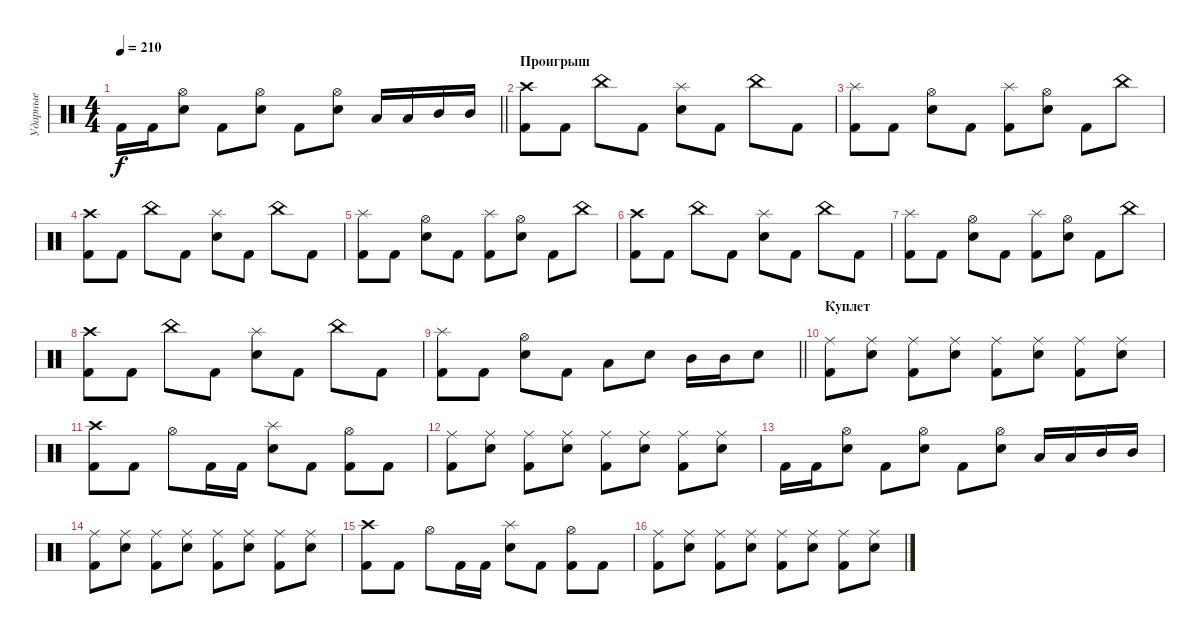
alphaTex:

\track ("Ударные" "Ударные") {instrument percussion}
\staff {score}
\articulation defaults
\ts (4 4)
\tempo 210
\clef neutral
\barLineRight lightlight
\ks c "Kick (hit) 2".16{dy f} "Kick (hit) 2".16
("Electric Snare (hit)" "Hi-Hat (open)").8 "Kick (hit) 2".8 ("Electric Snare (hit)" "Hi-Hat (open)").8 "Kick (hit) 2".8 ("Electric Snare (hit)" "Hi-Hat (open)").8 "Low Tom (hit)".16 "Low Tom (hit)".16 "Mid Tom (hit)".16 "Mid Tom (hit)".16 |
\section ("" "Проигрыш")
("Kick (hit) 2" "Crash high (hit)").8 "Kick (hit) 2".8 "China (hit)".8 "Kick (hit) 2".8 ("Electric Snare (hit)" "Splash (hit)").8 "Kick (hit) 2".8 "China (hit)".8 "Kick (hit) 2".8 |
("Kick (hit) 2" "Splash (hit)").8 "Kick (hit) 2".8 ("Electric Snare (hit)" "Hi-Hat (open)").8 "Kick (hit) 2".8 ("Kick (hit) 2" "Splash (hit)").8 ("Electric Snare (hit)" "Hi-Hat (open)").8 "Kick (hit) 2".8 "China (hit)".8 |
("Kick (hit) 2" "Crash high (hit)").8 "Kick (hit) 2".8 "China (hit)".8 "Kick (hit) 2".8 ("Electric Snare (hit)" "Splash (hit)").8 "Kick (hit) 2".8 "China (hit)".8 "Kick (hit) 2".8 |
("Kick (hit) 2" "Splash (hit)").8 "Kick (hit) 2".8 ("Electric Snare (hit)" "Hi-Hat (open)").8 "Kick (hit) 2".8 ("Kick (hit) 2" "Splash (hit)").8 ("Electric Snare (hit)" "Hi-Hat (open)").8 "Kick (hit) 2".8 "China (hit)".8 |
("Kick (hit) 2" "Crash high (hit)").8 "Kick (hit) 2".8 "China (hit)".8 "Kick (hit) 2".8 ("Electric Snare (hit)" "Splash (hit)").8 "Kick (hit) 2".8 "China (hit)".8 "Kick (hit) 2".8 |
("Kick (hit) 2" "Splash (hit)").8 "Kick (hit) 2".8 ("Electric Snare (hit)" "Hi-Hat (open)").8 "Kick (hit) 2".8 ("Kick (hit) 2" "Splash (hit)").8 ("Electric Snare (hit)" "Hi-Hat (open)").8 "Kick (hit) 2".8 "China (hit)".8 |
("Kick (hit) 2" "Crash high (hit)").8 "Kick (hit) 2".8 "China (hit)".8 "Kick (hit) 2".8 ("Electric Snare (hit)" "Splash (hit)").8 "Kick (hit) 2".8 "China (hit)".8 "Kick (hit) 2".8 |
\barLineRight lightlight
("Kick (hit) 2" "Splash (hit)").8 "Kick (hit) 2".8 ("Electric Snare (hit)" "Hi-Hat (open)").8 "Kick (hit) 2".8 "Low Tom (hit)".8 "Electric Snare (hit)".8 "Mid Tom (hit)".16 "Mid Tom (hit)".16 "Electric Snare (hit)".8 |
\section ("" "Куплет")
("Kick (hit) 2" "Ride (middle)").8 ("Electric Snare (hit)" "Ride (middle)").8 ("Kick (hit) 2" "Ride (middle)").8 ("Electric Snare (hit)" "Ride (middle)").8 ("Kick (hit) 2" "Ride (middle)").8 ("Electric Snare (hit)" "Ride (middle)").8 ("Kick (hit) 2" "Ride (middle)").8 ("Electric Snare (hit)" "Ride (middle)").8 |
("Kick (hit) 2" "Crash high (hit)").8 "Kick (hit) 2".8 "Hi-Hat (open)".8 "Kick (hit) 2".16 "Kick (hit) 2".16 ("Electric Snare (hit)" "Splash (hit)").8 "Kick (hit) 2".8 ("Kick (hit) 2" "Hi-Hat (open)").8 "Kick (hit) 2".8 |
("Kick (hit) 2" "Ride (middle)").8 ("Electric Snare (hit)" "Ride (middle)").8 ("Kick (hit) 2" "Ride (middle)").8 ("Electric Snare (hit)" "Ride (middle)").8 ("Kick (hit) 2" "Ride (middle)").8 ("Electric Snare (hit)" "Ride (middle)").8 ("Kick (hit) 2" "Ride (middle)").8 ("Electric Snare (hit)" "Ride (middle)").8 |
"Kick (hit) 2".16 "Kick (hit) 2".16 ("Electric Snare (hit)" "Hi-Hat (open)").8 "Kick (hit) 2".8 ("Electric Snare (hit)" "Hi-Hat (open)").8 "Kick (hit) 2".8 ("Electric Snare (hit)" "Hi-Hat (open)").8 "Low Tom (hit)".16 "Low Tom (hit)".16 "Mid Tom (hit)".16 "Mid Tom (hit)".16 |
("Kick (hit) 2" "Ride (middle)").8 ("Electric Snare (hit)" "Ride (middle)").8 ("Kick (hit) 2" "Ride (middle)").8 ("Electric Snare (hit)" "Ride (middle)").8 ("Kick (hit) 2" "Ride (middle)").8 ("Electric Snare (hit)" "Ride (middle)").8 ("Kick (hit) 2" "Ride (middle)").8 ("Electric Snare (hit)" "Ride (middle)").8 |
("Kick (hit) 2" "Crash high (hit)").8 "Kick (hit) 2".8 "Hi-Hat (open)".8 "Kick (hit) 2".16 "Kick (hit) 2".16 ("Electric Snare (hit)" "Splash (hit)").8 "Kick (hit) 2".8 ("Kick (hit) 2" "Hi-Hat (open)").8 "Kick (hit) 2".8 |
("Kick (hit) 2" "Ride (middle)").8 ("Electric Snare (hit)" "Ride (middle)").8 ("Kick (hit) 2" "Ride (middle)").8 ("Electric Snare (hit)" "Ride (middle)").8 ("Kick (hit) 2" "Ride (middle)").8 ("Electric Snare (hit)" "Ride (middle)").8 ("Kick (hit) 2" "Ride (middle)").8 ("Electric Snare (hit)" "Ride (middle)").8
